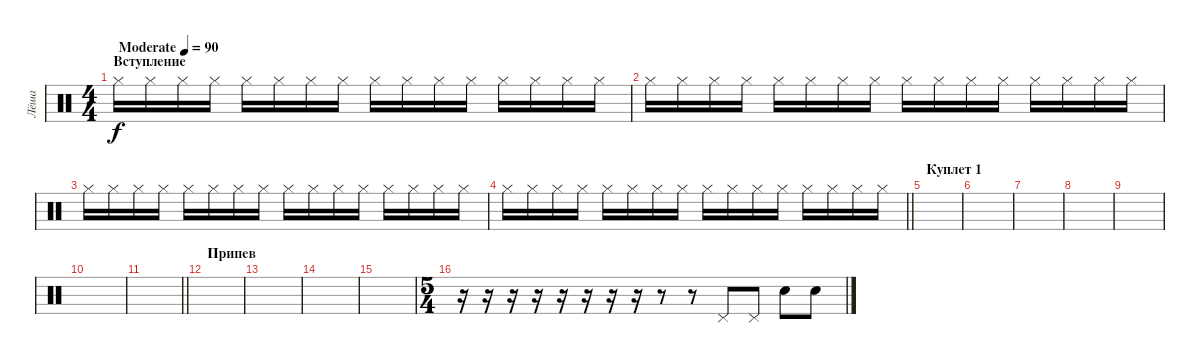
\track ("Лёша" "Лёша") {instrument percussion}
\staff {score}
\articulation defaults
\ts (4 4)
\section ("" "Вступление")
\tempo (90 "Moderate")
\clef neutral
\ks c "Hi-Hat (closed)".16{dy f} "Hi-Hat (closed)".16 "Hi-Hat (closed)".16 "Hi-Hat (closed)".16 "Hi-Hat (closed)".16 "Hi-Hat (closed)".16 "Hi-Hat (closed)".16 "Hi-Hat (closed)".16 "Hi-Hat (closed)".16 "Hi-Hat (closed)".16 "Hi-Hat (closed)".16 "Hi-Hat (closed)".16 "Hi-Hat (closed)".16 "Hi-Hat (closed)".16 "Hi-Hat (closed)".16 "Hi-Hat (closed)".16
|
"Hi-Hat (closed)".16 "Hi-Hat (closed)".16 "Hi-Hat (closed)".16 "Hi-Hat (closed)".16 "Hi-Hat (closed)".16 "Hi-Hat (closed)".16 "Hi-Hat (closed)".16 "Hi-Hat (closed)".16 "Hi-Hat (closed)".16 "Hi-Hat (closed)".16 "Hi-Hat (closed)".16 "Hi-Hat (closed)".16 "Hi-Hat (closed)".16 "Hi-Hat (closed)".16 "Hi-Hat (closed)".16 "Hi-Hat (closed)".16 |
"Hi-Hat (closed)".16 "Hi-Hat (closed)".16 "Hi-Hat (closed)".16 "Hi-Hat (closed)".16 "Hi-Hat (closed)".16 "Hi-Hat (closed)".16 "Hi-Hat (closed)".16 "Hi-Hat (closed)".16 "Hi-Hat (closed)".16 "Hi-Hat (closed)".16 "Hi-Hat (closed)".16 "Hi-Hat (closed)".16 "Hi-Hat (closed)".16 "Hi-Hat (closed)".16 "Hi-Hat (closed)".16 "Hi-Hat (closed)".16 |
\barLineRight lightlight "Hi-Hat (closed)".16 "Hi-Hat (closed)".16 "Hi-Hat (closed)".16 "Hi-Hat (closed)".16 "Hi-Hat (closed)".16 "Hi-Hat (closed)".16 "Hi-Hat (closed)".16 "Hi-Hat (closed)".16 "Hi-Hat (closed)".16 "Hi-Hat (closed)".16 "Hi-Hat (closed)".16 "Hi-Hat (closed)".16 "Hi-Hat (closed)".16 "Hi-Hat (closed)".16 "Hi-Hat (closed)".16 "Hi-Hat (closed)".16
|
\section ("" "Куплет 1")
|
|
|
|
|
|
\barLineRight lightlight
|
\section ("" "Припев")
|
|
|
|
\ts (5 4)
r.16 r.16 r.16 r.16 r.16 r.16 r.16 r.16 r.8 r.8 "Pedal Hi-Hat (hit)".8 "Pedal Hi-Hat (hit)".8 "Electric Snare (hit)".8 "Electric Snare (hit)".8
